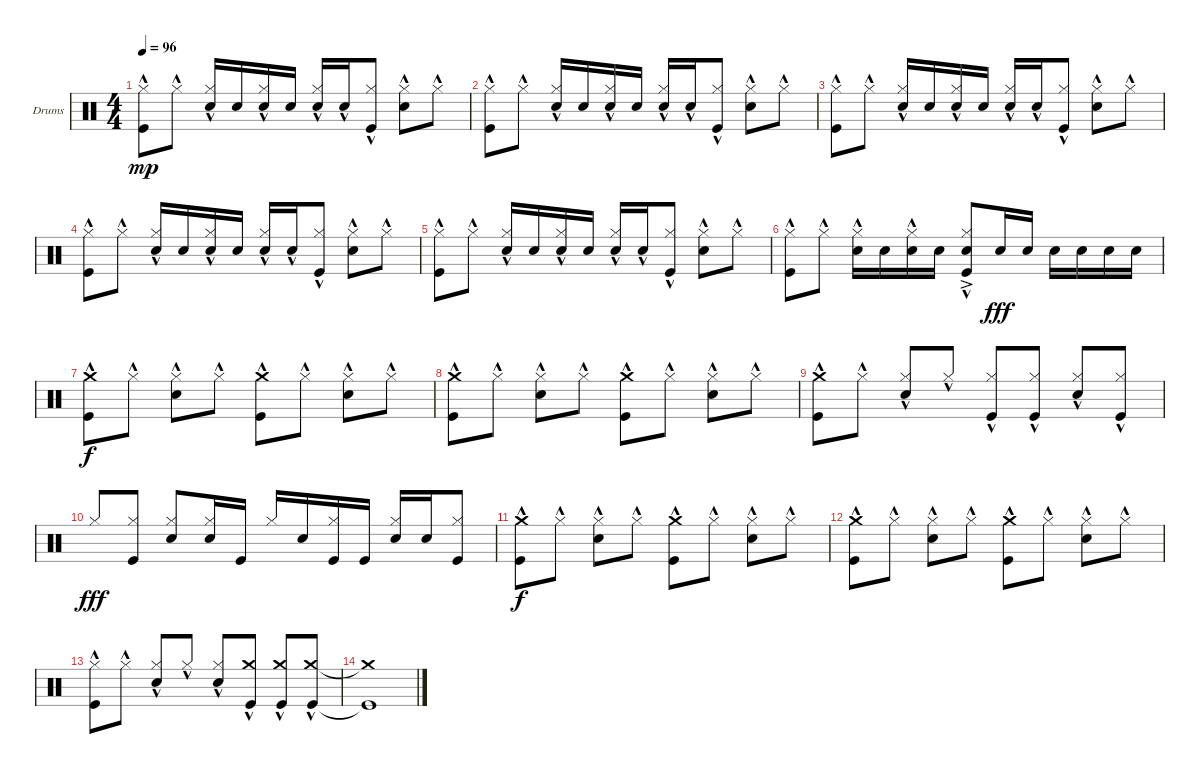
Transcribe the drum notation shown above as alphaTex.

\defaultSystemsLayout 4
\bracketExtendMode groupsimilarinstruments
\firstSystemTrackNameOrientation horizontal
\otherSystemsTrackNameOrientation horizontal
\track ("Drumkit" "Drums") {instrument percussion}
\staff {score}
\articulation defaults
\ts (4 4)
\tempo 96
\clef neutral
\ks c
("Kick (hit)"{hac} "Hi-Hat (closed)"{hac}).8{dy mp} "Hi-Hat (closed)"{hac}.8 ("Hi-Hat (closed)"{hac} "Snare (hit) 2"{hac}).16 "Snare (hit) 2".16 ("Snare (hit) 2" "Hi-Hat (closed)"{hac}).16 "Snare (hit) 2".16 ("Hi-Hat (closed)"{hac} "Snare (hit) 2").16{beam invert} "Snare (hit) 2"{hac}.16 ("Hi-Hat (closed)"{hac} "Kick (hit)"{hac}).8 ("Snare (hit) 2"{hac} "Hi-Hat (closed)"{hac}).8 "Hi-Hat (closed)"{hac}.8 |
("Kick (hit)"{hac} "Hi-Hat (closed)"{hac}).8 "Hi-Hat (closed)"{hac}.8 ("Hi-Hat (closed)"{hac} "Snare (hit) 2"{hac}).16 "Snare (hit) 2".16 ("Snare (hit) 2" "Hi-Hat (closed)"{hac}).16 "Snare (hit) 2".16 ("Hi-Hat (closed)"{hac} "Snare (hit) 2").16{beam invert} "Snare (hit) 2"{hac}.16 ("Hi-Hat (closed)"{hac} "Kick (hit)"{hac}).8 ("Snare (hit) 2"{hac} "Hi-Hat (closed)"{hac}).8 "Hi-Hat (closed)"{hac}.8 |
("Kick (hit)"{hac} "Hi-Hat (closed)"{hac}).8 "Hi-Hat (closed)"{hac}.8 ("Hi-Hat (closed)"{hac} "Snare (hit) 2"{hac}).16 "Snare (hit) 2".16 ("Snare (hit) 2" "Hi-Hat (closed)"{hac}).16 "Snare (hit) 2".16 ("Hi-Hat (closed)"{hac} "Snare (hit) 2").16{beam invert} "Snare (hit) 2"{hac}.16 ("Hi-Hat (closed)"{hac} "Kick (hit)"{hac}).8 ("Snare (hit) 2"{hac} "Hi-Hat (closed)"{hac}).8 "Hi-Hat (closed)"{hac}.8 |
("Kick (hit)"{hac} "Hi-Hat (closed)"{hac}).8 "Hi-Hat (closed)"{hac}.8 ("Hi-Hat (closed)"{hac} "Snare (hit) 2"{hac}).16 "Snare (hit) 2".16 ("Snare (hit) 2" "Hi-Hat (closed)"{hac}).16 "Snare (hit) 2".16 ("Hi-Hat (closed)"{hac} "Snare (hit) 2").16{beam invert} "Snare (hit) 2"{hac}.16 ("Hi-Hat (closed)"{hac} "Kick (hit)"{hac}).8 ("Snare (hit) 2"{hac} "Hi-Hat (closed)"{hac}).8 "Hi-Hat (closed)"{hac}.8 |
("Kick (hit)"{hac} "Hi-Hat (closed)"{hac}).8 "Hi-Hat (closed)"{hac}.8 ("Hi-Hat (closed)"{hac} "Snare (hit) 2"{hac}).16 "Snare (hit) 2".16 ("Snare (hit) 2" "Hi-Hat (closed)"{hac}).16 "Snare (hit) 2".16 ("Hi-Hat (closed)"{hac} "Snare (hit) 2").16{beam invert} "Snare (hit) 2"{hac}.16 ("Hi-Hat (closed)"{hac} "Kick (hit)"{hac}).8 ("Snare (hit) 2"{hac} "Hi-Hat (closed)"{hac}).8 "Hi-Hat (closed)"{hac}.8 |
("Kick (hit)"{hac} "Hi-Hat (closed)"{hac}).8 "Hi-Hat (closed)"{hac}.8 ("Hi-Hat (closed)"{hac} "Snare (hit) 2"{hac}).16 "Snare (hit) 2".16 ("Snare (hit) 2" "Hi-Hat (closed)"{hac}).16 "Snare (hit) 2".16 ("Kick (hit)"{ac} "Snare (hit) 2" "Hi-Hat (closed)"{hac}).8 "Snare (hit) 2".16{dy fff} "Snare (hit) 2".16 "Snare (hit) 2".16 "Snare (hit) 2".16 "Snare (hit) 2".16 "Snare (hit) 2".16 |
("Crash medium (hit)" "Kick (hit)"{hac}).8{dy f} "Hi-Hat (closed)"{hac}.8 ("Hi-Hat (closed)"{hac} "Snare (hit) 2").8 "Hi-Hat (closed)"{hac}.8 ("Crash medium (hit)" "Kick (hit)"{hac}).8 "Hi-Hat (closed)"{hac}.8 ("Hi-Hat (closed)"{hac} "Snare (hit) 2").8 "Hi-Hat (closed)"{hac}.8 |
("Crash medium (hit)" "Kick (hit)"{hac}).8 "Hi-Hat (closed)"{hac}.8 ("Hi-Hat (closed)"{hac} "Snare (hit) 2").8 "Hi-Hat (closed)"{hac}.8 ("Crash medium (hit)" "Kick (hit)"{hac}).8 "Hi-Hat (closed)"{hac}.8 ("Hi-Hat (closed)"{hac} "Snare (hit) 2").8 "Hi-Hat (closed)"{hac}.8 |
("Crash medium (hit)" "Kick (hit)"{hac}).8 "Hi-Hat (closed)"{hac}.8 ("Hi-Hat (closed)"{hac} "Snare (hit) 2").8 "Hi-Hat (closed)"{hac}.8 ("Hi-Hat (closed)"{hac} "Kick (hit)"{hac}).8{beam invert} ("Hi-Hat (closed)"{hac} "Kick (hit)"{hac}).8 ("Hi-Hat (closed)"{hac} "Snare (hit) 2").8{beam invert} ("Hi-Hat (closed)"{hac} "Kick (hit)"{hac}).8 |
"Hi-Hat (closed)".8{dy fff beam invert} ("Hi-Hat (closed)" "Kick (hit)").8 ("Hi-Hat (closed)" "Snare (hit) 2").8 ("Hi-Hat (closed)" "Snare (hit) 2").16 "Kick (hit)".16 "Hi-Hat (closed)".16{beam invert} "Snare (hit) 2".16 ("Hi-Hat (closed)" "Kick (hit)").16 "Kick (hit)".16 ("Hi-Hat (closed)" "Snare (hit) 2").16{beam invert} "Snare (hit) 2".16 ("Hi-Hat (closed)" "Kick (hit)").8 |
("Crash medium (hit)" "Kick (hit)"{hac}).8{dy f} "Hi-Hat (closed)"{hac}.8 ("Hi-Hat (closed)"{hac} "Snare (hit) 2").8 "Hi-Hat (closed)"{hac}.8 ("Crash medium (hit)" "Kick (hit)"{hac}).8 "Hi-Hat (closed)"{hac}.8 ("Hi-Hat (closed)"{hac} "Snare (hit) 2").8 "Hi-Hat (closed)"{hac}.8 |
("Crash medium (hit)" "Kick (hit)"{hac}).8 "Hi-Hat (closed)"{hac}.8 ("Hi-Hat (closed)"{hac} "Snare (hit) 2").8 "Hi-Hat (closed)"{hac}.8 ("Crash medium (hit)" "Kick (hit)"{hac}).8 "Hi-Hat (closed)"{hac}.8 ("Hi-Hat (closed)"{hac} "Snare (hit) 2").8 "Hi-Hat (closed)"{hac}.8 |
("Hi-Hat (closed)"{hac} "Kick (hit)"{hac}).8 "Hi-Hat (closed)"{hac}.8 ("Hi-Hat (closed)"{hac} "Snare (hit) 2").8 "Hi-Hat (closed)"{hac}.8 ("Hi-Hat (closed)"{hac} "Snare (hit) 2").8{beam invert} ("Crash medium (hit)" "Kick (hit)"{hac}).8 ("Crash medium (hit)" "Kick (hit)"{hac}).8{beam invert} ("Crash medium (hit)" "Kick (hit)"{hac}).8 |
("Crash medium (hit)"{t} "Kick (hit)"{t}).1
